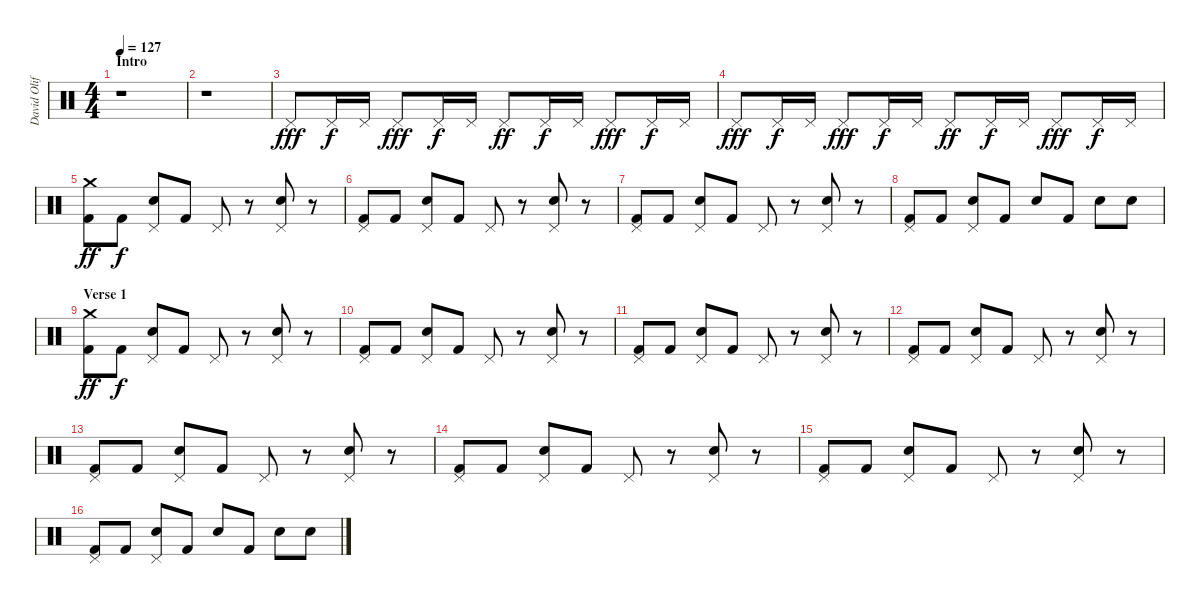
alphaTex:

\track ("David Oliffe" "David Olif") {instrument percussion}
\staff {score}
\articulation defaults
\ts (4 4)
\section ("" "Intro")
\tempo 127
\clef neutral
\ks c
r.1{dy fff} |
r.1 |
"Pedal Hi-Hat (hit)".8 "Pedal Hi-Hat (hit)".16{dy f} "Pedal Hi-Hat (hit)".16 "Pedal Hi-Hat (hit)".8{dy fff} "Pedal Hi-Hat (hit)".16{dy f} "Pedal Hi-Hat (hit)".16 "Pedal Hi-Hat (hit)".8{dy ff} "Pedal Hi-Hat (hit)".16{dy f} "Pedal Hi-Hat (hit)".16 "Pedal Hi-Hat (hit)".8{dy fff} "Pedal Hi-Hat (hit)".16{dy f} "Pedal Hi-Hat (hit)".16 |
"Pedal Hi-Hat (hit)".8{dy fff} "Pedal Hi-Hat (hit)".16{dy f} "Pedal Hi-Hat (hit)".16 "Pedal Hi-Hat (hit)".8{dy fff} "Pedal Hi-Hat (hit)".16{dy f} "Pedal Hi-Hat (hit)".16 "Pedal Hi-Hat (hit)".8{dy ff} "Pedal Hi-Hat (hit)".16{dy f} "Pedal Hi-Hat (hit)".16 "Pedal Hi-Hat (hit)".8{dy fff} "Pedal Hi-Hat (hit)".16{dy f} "Pedal Hi-Hat (hit)".16 |
("Crash medium (hit)" "Kick (hit) 2").8{dy ff} "Kick (hit) 2".8{dy f} ("Pedal Hi-Hat (hit)" "Electric Snare (hit)").8 "Kick (hit) 2".8 "Pedal Hi-Hat (hit)".8 r.8 ("Pedal Hi-Hat (hit)" "Electric Snare (hit)").8 r.8 |
("Pedal Hi-Hat (hit)" "Kick (hit) 2").8 "Kick (hit) 2".8 ("Pedal Hi-Hat (hit)" "Electric Snare (hit)").8 "Kick (hit) 2".8 "Pedal Hi-Hat (hit)".8 r.8 ("Pedal Hi-Hat (hit)" "Electric Snare (hit)").8 r.8 |
("Pedal Hi-Hat (hit)" "Kick (hit) 2").8 "Kick (hit) 2".8 ("Pedal Hi-Hat (hit)" "Electric Snare (hit)").8 "Kick (hit) 2".8 "Pedal Hi-Hat (hit)".8 r.8 ("Pedal Hi-Hat (hit)" "Electric Snare (hit)").8 r.8 |
("Pedal Hi-Hat (hit)" "Kick (hit) 2").8 "Kick (hit) 2".8 ("Pedal Hi-Hat (hit)" "Electric Snare (hit)").8 "Kick (hit) 2".8 "Electric Snare (hit)".8 "Kick (hit) 2".8 "Electric Snare (hit)".8 "Electric Snare (hit)".8 |
\section ("" "Verse 1")
("Crash medium (hit)" "Kick (hit) 2").8{dy ff} "Kick (hit) 2".8{dy f} ("Pedal Hi-Hat (hit)" "Electric Snare (hit)").8 "Kick (hit) 2".8 "Pedal Hi-Hat (hit)".8 r.8 ("Pedal Hi-Hat (hit)" "Electric Snare (hit)").8 r.8 |
("Pedal Hi-Hat (hit)" "Kick (hit) 2").8 "Kick (hit) 2".8 ("Pedal Hi-Hat (hit)" "Electric Snare (hit)").8 "Kick (hit) 2".8 "Pedal Hi-Hat (hit)".8 r.8 ("Pedal Hi-Hat (hit)" "Electric Snare (hit)").8 r.8 |
("Pedal Hi-Hat (hit)" "Kick (hit) 2").8 "Kick (hit) 2".8 ("Pedal Hi-Hat (hit)" "Electric Snare (hit)").8 "Kick (hit) 2".8 "Pedal Hi-Hat (hit)".8 r.8 ("Pedal Hi-Hat (hit)" "Electric Snare (hit)").8 r.8 |
("Pedal Hi-Hat (hit)" "Kick (hit) 2").8 "Kick (hit) 2".8 ("Pedal Hi-Hat (hit)" "Electric Snare (hit)").8 "Kick (hit) 2".8 "Pedal Hi-Hat (hit)".8 r.8 ("Pedal Hi-Hat (hit)" "Electric Snare (hit)").8 r.8 |
("Pedal Hi-Hat (hit)" "Kick (hit) 2").8 "Kick (hit) 2".8 ("Pedal Hi-Hat (hit)" "Electric Snare (hit)").8 "Kick (hit) 2".8 "Pedal Hi-Hat (hit)".8 r.8 ("Pedal Hi-Hat (hit)" "Electric Snare (hit)").8 r.8 |
("Pedal Hi-Hat (hit)" "Kick (hit) 2").8 "Kick (hit) 2".8 ("Pedal Hi-Hat (hit)" "Electric Snare (hit)").8 "Kick (hit) 2".8 "Pedal Hi-Hat (hit)".8 r.8 ("Pedal Hi-Hat (hit)" "Electric Snare (hit)").8 r.8 |
("Pedal Hi-Hat (hit)" "Kick (hit) 2").8 "Kick (hit) 2".8 ("Pedal Hi-Hat (hit)" "Electric Snare (hit)").8 "Kick (hit) 2".8 "Pedal Hi-Hat (hit)".8 r.8 ("Pedal Hi-Hat (hit)" "Electric Snare (hit)").8 r.8 |
("Pedal Hi-Hat (hit)" "Kick (hit) 2").8 "Kick (hit) 2".8 ("Pedal Hi-Hat (hit)" "Electric Snare (hit)").8 "Kick (hit) 2".8 "Electric Snare (hit)".8 "Kick (hit) 2".8 "Electric Snare (hit)".8 "Electric Snare (hit)".8
